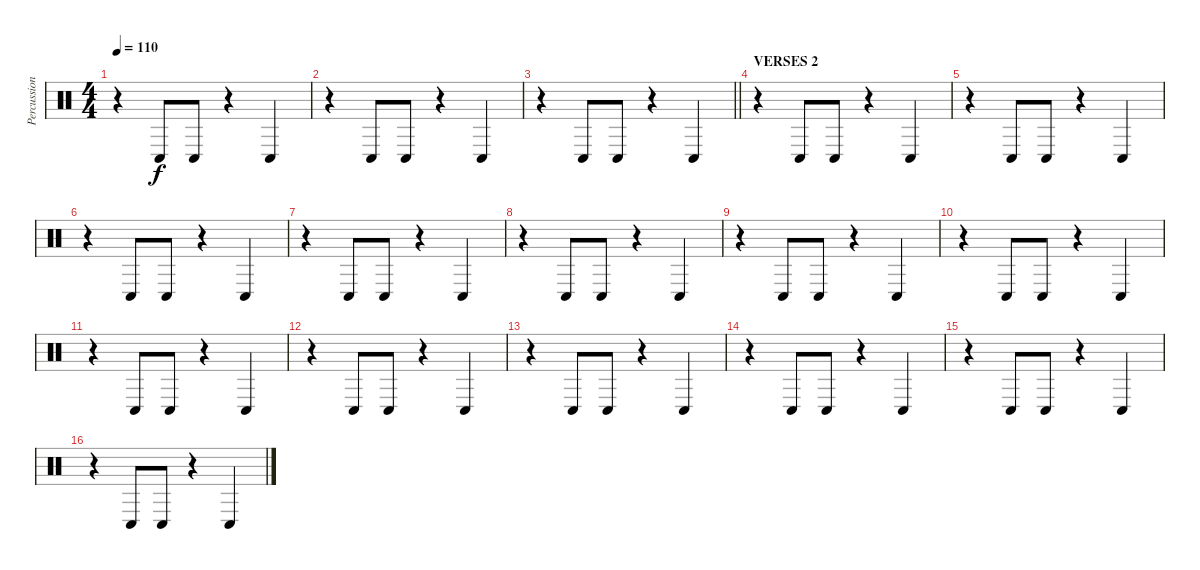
\track ("Percussion" "Percussion") {instrument percussion}
\staff {score}
\articulation defaults
\ts (4 4)
\tempo 110
\clef neutral
\ks c
r.4{dy f} "Conga low (hit)".8 "Conga low (hit)".8 r.4 "Conga low (hit)".4 |
r.4 "Conga low (hit)".8 "Conga low (hit)".8 r.4 "Conga low (hit)".4 |
\barLineRight lightlight
r.4 "Conga low (hit)".8 "Conga low (hit)".8 r.4 "Conga low (hit)".4 |
\section ("" "VERSES 2")
r.4 "Conga low (hit)".8 "Conga low (hit)".8 r.4 "Conga low (hit)".4 |
r.4 "Conga low (hit)".8 "Conga low (hit)".8 r.4 "Conga low (hit)".4 |
r.4 "Conga low (hit)".8 "Conga low (hit)".8 r.4 "Conga low (hit)".4 |
r.4 "Conga low (hit)".8 "Conga low (hit)".8 r.4 "Conga low (hit)".4 |
r.4 "Conga low (hit)".8 "Conga low (hit)".8 r.4 "Conga low (hit)".4 |
r.4 "Conga low (hit)".8 "Conga low (hit)".8 r.4 "Conga low (hit)".4 |
r.4 "Conga low (hit)".8 "Conga low (hit)".8 r.4 "Conga low (hit)".4 |
r.4 "Conga low (hit)".8 "Conga low (hit)".8 r.4 "Conga low (hit)".4 |
r.4 "Conga low (hit)".8 "Conga low (hit)".8 r.4 "Conga low (hit)".4 |
r.4 "Conga low (hit)".8 "Conga low (hit)".8 r.4 "Conga low (hit)".4 |
r.4 "Conga low (hit)".8 "Conga low (hit)".8 r.4 "Conga low (hit)".4 |
r.4 "Conga low (hit)".8 "Conga low (hit)".8 r.4 "Conga low (hit)".4 |
r.4 "Conga low (hit)".8 "Conga low (hit)".8 r.4 "Conga low (hit)".4
